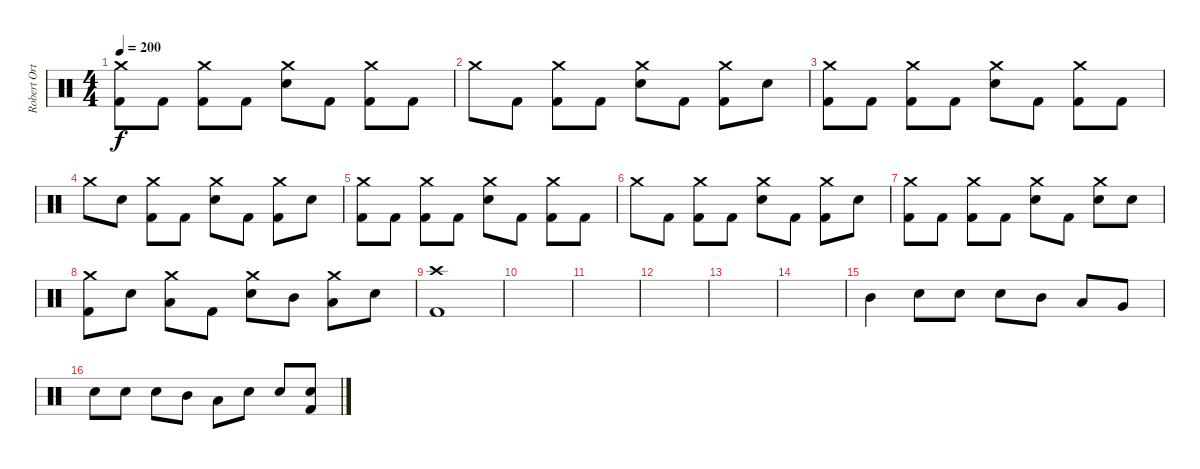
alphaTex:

\track ("Robert Ortiz - Drums" "Robert Ort") {instrument percussion}
\staff {score}
\articulation defaults
\ts (4 4)
\tempo 200
\clef neutral
\ks c
("Crash medium (hit)" "Kick (hit) 2").8{dy f} "Kick (hit) 2".8 ("Crash medium (hit)" "Kick (hit) 2").8 "Kick (hit) 2".8 ("Crash medium (hit)" "Electric Snare (hit)").8 "Kick (hit) 2".8 ("Crash medium (hit)" "Kick (hit) 2").8 "Kick (hit) 2".8 |
"Crash medium (hit)".8 "Kick (hit) 2".8 ("Crash medium (hit)" "Kick (hit) 2").8 "Kick (hit) 2".8 ("Crash medium (hit)" "Electric Snare (hit)").8 "Kick (hit) 2".8 ("Crash medium (hit)" "Kick (hit) 2").8 "Electric Snare (hit)".8 |
("Crash medium (hit)" "Kick (hit) 2").8 "Kick (hit) 2".8 ("Crash medium (hit)" "Kick (hit) 2").8 "Kick (hit) 2".8 ("Crash medium (hit)" "Electric Snare (hit)").8 "Kick (hit) 2".8 ("Crash medium (hit)" "Kick (hit) 2").8 "Kick (hit) 2".8 |
"Crash medium (hit)".8 "Electric Snare (hit)".8 ("Crash medium (hit)" "Kick (hit) 2").8 "Kick (hit) 2".8 ("Crash medium (hit)" "Electric Snare (hit)").8 "Kick (hit) 2".8 ("Crash medium (hit)" "Kick (hit) 2").8 "Electric Snare (hit)".8 |
("Crash medium (hit)" "Kick (hit) 2").8 "Kick (hit) 2".8 ("Crash medium (hit)" "Kick (hit) 2").8 "Kick (hit) 2".8 ("Crash medium (hit)" "Electric Snare (hit)").8 "Kick (hit) 2".8 ("Crash medium (hit)" "Kick (hit) 2").8 "Kick (hit) 2".8 |
"Crash medium (hit)".8 "Kick (hit) 2".8 ("Crash medium (hit)" "Kick (hit) 2").8 "Kick (hit) 2".8 ("Crash medium (hit)" "Electric Snare (hit)").8 "Kick (hit) 2".8 ("Crash medium (hit)" "Kick (hit) 2").8 "Electric Snare (hit)".8 |
("Crash medium (hit)" "Kick (hit) 2").8 "Kick (hit) 2".8 ("Crash medium (hit)" "Kick (hit) 2").8 "Kick (hit) 2".8 ("Crash medium (hit)" "Electric Snare (hit)").8 "Kick (hit) 2".8 ("Crash medium (hit)" "Electric Snare (hit)").8 "Electric Snare (hit)".8 |
("Crash medium (hit)" "Kick (hit) 2").8 "Electric Snare (hit)".8 ("Crash medium (hit)" "Low Tom (hit)").8 "Kick (hit) 2".8 ("Crash medium (hit)" "Electric Snare (hit)").8 "Mid Tom (hit)".8 ("Crash medium (hit)" "Low Tom (hit)").8 "Electric Snare (hit)".8 |
("Crash high (hit)" "Kick (hit) 2").1 |
|
|
|
|
|
"Mid Tom (hit)".4 "Electric Snare (hit)".8 "Electric Snare (hit)".8 "Electric Snare (hit)".8 "Mid Tom (hit)".8 "Low Tom (hit)".8 "Very Low Tom (hit)".8 |
"Electric Snare (hit)".8 "Electric Snare (hit)".8 "Electric Snare (hit)".8 "Mid Tom (hit)".8 "Low Tom (hit)".8 "Electric Snare (hit)".8 "Electric Snare (hit)".8 ("Electric Snare (hit)" "Kick (hit) 2").8
